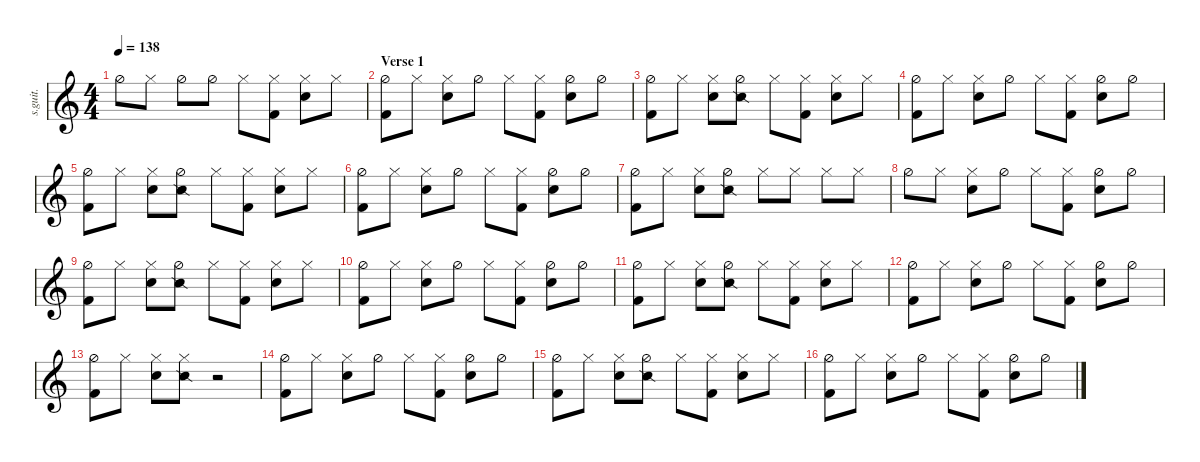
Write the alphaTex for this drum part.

\defaultSystemsLayout 4
\hideDynamics
\bracketExtendMode nobrackets
\track ("Russel Hobbs | Drums" "s.guit.") {instrument percussion}
\staff {score}
\articulation defaults
\ts (4 4)
\tempo 138
\clef g2
\ks c "Hi-Hat (half)".8{dy f} "Hi-Hat (closed)".8 "Hi-Hat (half)".8 "Hi-Hat (half)".8 "Hi-Hat (closed)".8
("Hi-Hat (closed)" "Kick (hit) 2").8 ("Hi-Hat (closed)" "Snare (hit) 2").8 "Hi-Hat (closed)".8 |
\section ("" "Verse 1")
("Hi-Hat (half)" "Kick (hit) 2").8 "Hi-Hat (closed)".8 ("Hi-Hat (closed)" "Snare (hit) 2").8 "Hi-Hat (half)".8 "Hi-Hat (closed)".8 ("Hi-Hat (closed)" "Kick (hit) 2").8 ("Hi-Hat (half)" "Snare (hit) 2").8 "Hi-Hat (half)".8 |
("Hi-Hat (half)" "Kick (hit) 2").8 "Hi-Hat (closed)".8 ("Hi-Hat (closed)" "Snare (hit) 2").8 ("Hi-Hat (half)" "Snare (side stick) 2").8 "Hi-Hat (closed)".8 ("Hi-Hat (closed)" "Kick (hit) 2").8 ("Hi-Hat (closed)" "Snare (hit) 2").8 "Hi-Hat (closed)".8 |
("Hi-Hat (half)" "Kick (hit) 2").8 "Hi-Hat (closed)".8 ("Hi-Hat (closed)" "Snare (hit) 2").8 "Hi-Hat (half)".8 "Hi-Hat (closed)".8 ("Hi-Hat (closed)" "Kick (hit) 2").8 ("Hi-Hat (half)" "Snare (hit) 2").8 "Hi-Hat (half)".8 |
("Hi-Hat (half)" "Kick (hit) 2").8 "Hi-Hat (closed)".8 ("Hi-Hat (closed)" "Snare (hit) 2").8 ("Hi-Hat (half)" "Snare (side stick) 2").8 "Hi-Hat (closed)".8 ("Hi-Hat (closed)" "Kick (hit) 2").8 ("Hi-Hat (closed)" "Snare (hit) 2").8 "Hi-Hat (closed)".8 |
("Hi-Hat (half)" "Kick (hit) 2").8 "Hi-Hat (closed)".8 ("Hi-Hat (closed)" "Snare (hit) 2").8 "Hi-Hat (half)".8 "Hi-Hat (closed)".8 ("Hi-Hat (closed)" "Kick (hit) 2").8 ("Hi-Hat (half)" "Snare (hit) 2").8 "Hi-Hat (half)".8 |
("Hi-Hat (half)" "Kick (hit) 2").8 "Hi-Hat (closed)".8 ("Hi-Hat (closed)" "Snare (hit) 2").8 ("Hi-Hat (half)" "Snare (side stick) 2").8 "Hi-Hat (closed)".8 "Hi-Hat (closed)".8 "Hi-Hat (closed)".8 "Hi-Hat (closed)".8 |
"Hi-Hat (half)".8 "Hi-Hat (closed)".8 ("Hi-Hat (closed)" "Snare (hit) 2").8 "Hi-Hat (half)".8 "Hi-Hat (closed)".8 ("Hi-Hat (closed)" "Kick (hit) 2").8 ("Hi-Hat (half)" "Snare (hit) 2").8 "Hi-Hat (half)".8 |
("Hi-Hat (half)" "Kick (hit) 2").8 "Hi-Hat (closed)".8 ("Hi-Hat (closed)" "Snare (hit) 2").8 ("Hi-Hat (half)" "Snare (side stick) 2").8 "Hi-Hat (closed)".8 ("Hi-Hat (closed)" "Kick (hit) 2").8 ("Hi-Hat (closed)" "Snare (hit) 2").8 "Hi-Hat (closed)".8 |
("Hi-Hat (half)" "Kick (hit) 2").8 "Hi-Hat (closed)".8 ("Hi-Hat (closed)" "Snare (hit) 2").8 "Hi-Hat (half)".8 "Hi-Hat (closed)".8 ("Hi-Hat (closed)" "Kick (hit) 2").8 ("Hi-Hat (half)" "Snare (hit) 2").8 "Hi-Hat (half)".8 |
("Hi-Hat (half)" "Kick (hit) 2").8 "Hi-Hat (closed)".8 ("Hi-Hat (closed)" "Snare (hit) 2").8 ("Hi-Hat (half)" "Snare (side stick) 2").8 "Hi-Hat (closed)".8 ("Hi-Hat (closed)" "Kick (hit) 2").8 ("Hi-Hat (closed)" "Snare (hit) 2").8 "Hi-Hat (closed)".8 |
("Hi-Hat (half)" "Kick (hit) 2").8 "Hi-Hat (closed)".8 ("Hi-Hat (closed)" "Snare (hit) 2").8 "Hi-Hat (half)".8 "Hi-Hat (closed)".8 ("Hi-Hat (closed)" "Kick (hit) 2").8 ("Hi-Hat (half)" "Snare (hit) 2").8 "Hi-Hat (half)".8 |
("Hi-Hat (half)" "Kick (hit) 2").8 "Hi-Hat (closed)".8 ("Hi-Hat (closed)" "Snare (hit) 2").8 ("Hi-Hat (closed)" "Snare (side stick) 2").8 r.2 |
("Hi-Hat (half)" "Kick (hit) 2").8 "Hi-Hat (closed)".8 ("Hi-Hat (closed)" "Snare (hit) 2").8 "Hi-Hat (half)".8 "Hi-Hat (closed)".8 ("Hi-Hat (closed)" "Kick (hit) 2").8 ("Hi-Hat (half)" "Snare (hit) 2").8 "Hi-Hat (half)".8 |
("Hi-Hat (half)" "Kick (hit) 2").8 "Hi-Hat (closed)".8 ("Hi-Hat (closed)" "Snare (hit) 2").8 ("Hi-Hat (half)" "Snare (side stick) 2").8 "Hi-Hat (closed)".8 ("Hi-Hat (closed)" "Kick (hit) 2").8 ("Hi-Hat (closed)" "Snare (hit) 2").8 "Hi-Hat (closed)".8 |
("Hi-Hat (half)" "Kick (hit) 2").8 "Hi-Hat (closed)".8 ("Hi-Hat (closed)" "Snare (hit) 2").8 "Hi-Hat (half)".8 "Hi-Hat (closed)".8 ("Hi-Hat (closed)" "Kick (hit) 2").8 ("Hi-Hat (half)" "Snare (hit) 2").8 "Hi-Hat (half)".8
